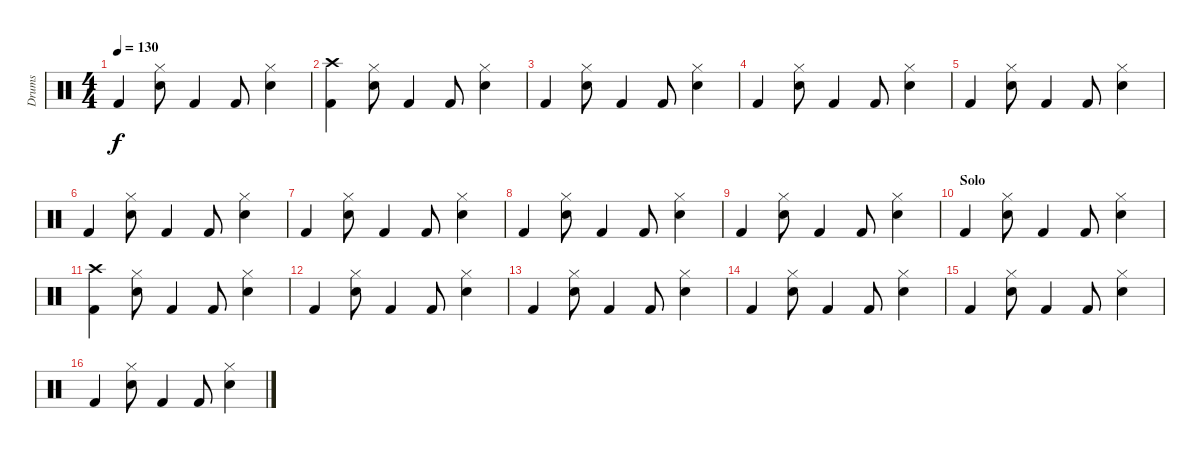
\track ("Drums" "Drums") {instrument percussion}
\staff {score}
\articulation defaults
\ts (4 4)
\tempo 130
\clef neutral
\ks c "Kick (hit) 2".4{dy f}
("Hi-Hat (closed)" "Snare (hit) 2").8 "Kick (hit) 2".4 "Kick (hit) 2".8 ("Hi-Hat (closed)" "Snare (hit) 2").4 |
("Crash high (hit)" "Kick (hit) 2").4 ("Hi-Hat (closed)" "Snare (hit) 2").8 "Kick (hit) 2".4 "Kick (hit) 2".8 ("Hi-Hat (closed)" "Snare (hit) 2").4 |
"Kick (hit) 2".4 ("Hi-Hat (closed)" "Snare (hit) 2").8 "Kick (hit) 2".4 "Kick (hit) 2".8 ("Hi-Hat (closed)" "Snare (hit) 2").4 |
"Kick (hit) 2".4 ("Hi-Hat (closed)" "Snare (hit) 2").8 "Kick (hit) 2".4 "Kick (hit) 2".8 ("Hi-Hat (closed)" "Snare (hit) 2").4 |
"Kick (hit) 2".4 ("Hi-Hat (closed)" "Snare (hit) 2").8 "Kick (hit) 2".4 "Kick (hit) 2".8 ("Hi-Hat (closed)" "Snare (hit) 2").4 |
"Kick (hit) 2".4 ("Hi-Hat (closed)" "Snare (hit) 2").8 "Kick (hit) 2".4 "Kick (hit) 2".8 ("Hi-Hat (closed)" "Snare (hit) 2").4 |
"Kick (hit) 2".4 ("Hi-Hat (closed)" "Snare (hit) 2").8 "Kick (hit) 2".4 "Kick (hit) 2".8 ("Hi-Hat (closed)" "Snare (hit) 2").4 |
"Kick (hit) 2".4 ("Hi-Hat (closed)" "Snare (hit) 2").8 "Kick (hit) 2".4 "Kick (hit) 2".8 ("Hi-Hat (closed)" "Snare (hit) 2").4 |
"Kick (hit) 2".4 ("Hi-Hat (closed)" "Snare (hit) 2").8 "Kick (hit) 2".4 "Kick (hit) 2".8 ("Hi-Hat (closed)" "Snare (hit) 2").4 |
\section ("" "Solo")
"Kick (hit) 2".4 ("Hi-Hat (closed)" "Snare (hit) 2").8 "Kick (hit) 2".4 "Kick (hit) 2".8 ("Hi-Hat (closed)" "Snare (hit) 2").4 |
("Crash high (hit)" "Kick (hit) 2").4 ("Hi-Hat (closed)" "Snare (hit) 2").8 "Kick (hit) 2".4 "Kick (hit) 2".8 ("Hi-Hat (closed)" "Snare (hit) 2").4 |
"Kick (hit) 2".4 ("Hi-Hat (closed)" "Snare (hit) 2").8 "Kick (hit) 2".4 "Kick (hit) 2".8 ("Hi-Hat (closed)" "Snare (hit) 2").4 |
"Kick (hit) 2".4 ("Hi-Hat (closed)" "Snare (hit) 2").8 "Kick (hit) 2".4 "Kick (hit) 2".8 ("Hi-Hat (closed)" "Snare (hit) 2").4 |
"Kick (hit) 2".4 ("Hi-Hat (closed)" "Snare (hit) 2").8 "Kick (hit) 2".4 "Kick (hit) 2".8 ("Hi-Hat (closed)" "Snare (hit) 2").4 |
"Kick (hit) 2".4 ("Hi-Hat (closed)" "Snare (hit) 2").8 "Kick (hit) 2".4 "Kick (hit) 2".8 ("Hi-Hat (closed)" "Snare (hit) 2").4 |
"Kick (hit) 2".4 ("Hi-Hat (closed)" "Snare (hit) 2").8 "Kick (hit) 2".4 "Kick (hit) 2".8 ("Hi-Hat (closed)" "Snare (hit) 2").4
